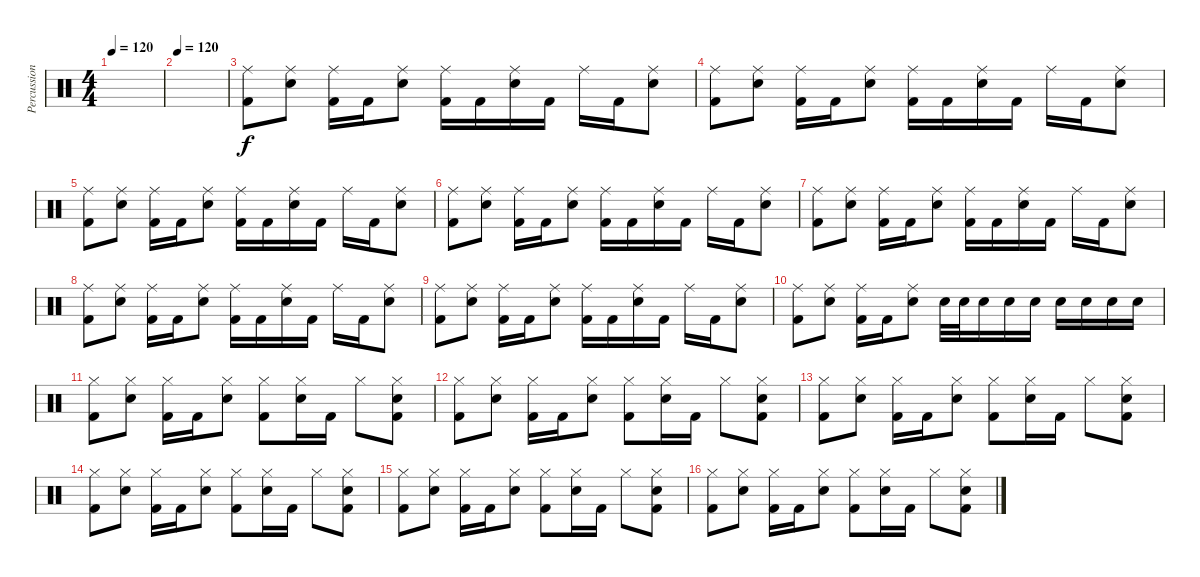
\track ("Percussion" "Percussion") {instrument percussion}
\staff {score}
\articulation defaults
\ts (4 4)
\tempo 120
\clef neutral
\ks c
|
\tempo 120
|
("Ride (middle)" "Kick (hit) 2").8{dy f} ("Ride (middle)" "Electric Snare (hit)").8 ("Ride (middle)" "Kick (hit) 2").16 "Kick (hit) 2".16 ("Ride (middle)" "Electric Snare (hit)").8 ("Ride (middle)" "Kick (hit) 2").16 "Kick (hit) 2".16 ("Ride (middle)" "Electric Snare (hit)").16 "Kick (hit) 2".16 "Ride (middle)".16 "Kick (hit) 2".16 ("Ride (middle)" "Electric Snare (hit)").8 |
("Ride (middle)" "Kick (hit) 2").8 ("Ride (middle)" "Electric Snare (hit)").8 ("Ride (middle)" "Kick (hit) 2").16 "Kick (hit) 2".16 ("Ride (middle)" "Electric Snare (hit)").8 ("Ride (middle)" "Kick (hit) 2").16 "Kick (hit) 2".16 ("Ride (middle)" "Electric Snare (hit)").16 "Kick (hit) 2".16 "Ride (middle)".16 "Kick (hit) 2".16 ("Ride (middle)" "Electric Snare (hit)").8 |
("Ride (middle)" "Kick (hit) 2").8 ("Ride (middle)" "Electric Snare (hit)").8 ("Ride (middle)" "Kick (hit) 2").16 "Kick (hit) 2".16 ("Ride (middle)" "Electric Snare (hit)").8 ("Ride (middle)" "Kick (hit) 2").16 "Kick (hit) 2".16 ("Ride (middle)" "Electric Snare (hit)").16 "Kick (hit) 2".16 "Ride (middle)".16 "Kick (hit) 2".16 ("Ride (middle)" "Electric Snare (hit)").8 |
("Ride (middle)" "Kick (hit) 2").8 ("Ride (middle)" "Electric Snare (hit)").8 ("Ride (middle)" "Kick (hit) 2").16 "Kick (hit) 2".16 ("Ride (middle)" "Electric Snare (hit)").8 ("Ride (middle)" "Kick (hit) 2").16 "Kick (hit) 2".16 ("Ride (middle)" "Electric Snare (hit)").16 "Kick (hit) 2".16 "Ride (middle)".16 "Kick (hit) 2".16 ("Ride (middle)" "Electric Snare (hit)").8 |
("Ride (middle)" "Kick (hit) 2").8 ("Ride (middle)" "Electric Snare (hit)").8 ("Ride (middle)" "Kick (hit) 2").16 "Kick (hit) 2".16 ("Ride (middle)" "Electric Snare (hit)").8 ("Ride (middle)" "Kick (hit) 2").16 "Kick (hit) 2".16 ("Ride (middle)" "Electric Snare (hit)").16 "Kick (hit) 2".16 "Ride (middle)".16 "Kick (hit) 2".16 ("Ride (middle)" "Electric Snare (hit)").8 |
("Ride (middle)" "Kick (hit) 2").8 ("Ride (middle)" "Electric Snare (hit)").8 ("Ride (middle)" "Kick (hit) 2").16 "Kick (hit) 2".16 ("Ride (middle)" "Electric Snare (hit)").8 ("Ride (middle)" "Kick (hit) 2").16 "Kick (hit) 2".16 ("Ride (middle)" "Electric Snare (hit)").16 "Kick (hit) 2".16 "Ride (middle)".16 "Kick (hit) 2".16 ("Ride (middle)" "Electric Snare (hit)").8 |
("Ride (middle)" "Kick (hit) 2").8 ("Ride (middle)" "Electric Snare (hit)").8 ("Ride (middle)" "Kick (hit) 2").16 "Kick (hit) 2".16 ("Ride (middle)" "Electric Snare (hit)").8 ("Ride (middle)" "Kick (hit) 2").16 "Kick (hit) 2".16 ("Ride (middle)" "Electric Snare (hit)").16 "Kick (hit) 2".16 "Ride (middle)".16 "Kick (hit) 2".16 ("Ride (middle)" "Electric Snare (hit)").8 |
("Ride (middle)" "Kick (hit) 2").8 ("Ride (middle)" "Electric Snare (hit)").8 ("Ride (middle)" "Kick (hit) 2").16 "Kick (hit) 2".16 ("Ride (middle)" "Electric Snare (hit)").8 "Electric Snare (hit)".32 "Electric Snare (hit)".32 "Electric Snare (hit)".16 "Electric Snare (hit)".16 "Electric Snare (hit)".16 "Electric Snare (hit)".16 "Electric Snare (hit)".16 "Electric Snare (hit)".16 "Electric Snare (hit)".16 |
("Hi-Hat (closed)" "Kick (hit) 2").8 ("Hi-Hat (closed)" "Electric Snare (hit)").8 ("Hi-Hat (closed)" "Kick (hit) 2").16 "Kick (hit) 2".16 ("Hi-Hat (closed)" "Electric Snare (hit)").8 ("Hi-Hat (closed)" "Kick (hit) 2").8 ("Hi-Hat (closed)" "Electric Snare (hit)").16 "Kick (hit) 2".16 "Hi-Hat (closed)".8 ("Hi-Hat (closed)" "Electric Snare (hit)" "Kick (hit) 2").8 |
("Hi-Hat (closed)" "Kick (hit) 2").8 ("Hi-Hat (closed)" "Electric Snare (hit)").8 ("Hi-Hat (closed)" "Kick (hit) 2").16 "Kick (hit) 2".16 ("Hi-Hat (closed)" "Electric Snare (hit)").8 ("Hi-Hat (closed)" "Kick (hit) 2").8 ("Hi-Hat (closed)" "Electric Snare (hit)").16 "Kick (hit) 2".16 "Hi-Hat (closed)".8 ("Hi-Hat (closed)" "Electric Snare (hit)" "Kick (hit) 2").8 |
("Hi-Hat (closed)" "Kick (hit) 2").8 ("Hi-Hat (closed)" "Electric Snare (hit)").8 ("Hi-Hat (closed)" "Kick (hit) 2").16 "Kick (hit) 2".16 ("Hi-Hat (closed)" "Electric Snare (hit)").8 ("Hi-Hat (closed)" "Kick (hit) 2").8 ("Hi-Hat (closed)" "Electric Snare (hit)").16 "Kick (hit) 2".16 "Hi-Hat (closed)".8 ("Hi-Hat (closed)" "Electric Snare (hit)" "Kick (hit) 2").8 |
("Hi-Hat (closed)" "Kick (hit) 2").8 ("Hi-Hat (closed)" "Electric Snare (hit)").8 ("Hi-Hat (closed)" "Kick (hit) 2").16 "Kick (hit) 2".16 ("Hi-Hat (closed)" "Electric Snare (hit)").8 ("Hi-Hat (closed)" "Kick (hit) 2").8 ("Hi-Hat (closed)" "Electric Snare (hit)").16 "Kick (hit) 2".16 "Hi-Hat (closed)".8 ("Hi-Hat (closed)" "Electric Snare (hit)" "Kick (hit) 2").8 |
("Hi-Hat (closed)" "Kick (hit) 2").8 ("Hi-Hat (closed)" "Electric Snare (hit)").8 ("Hi-Hat (closed)" "Kick (hit) 2").16 "Kick (hit) 2".16 ("Hi-Hat (closed)" "Electric Snare (hit)").8 ("Hi-Hat (closed)" "Kick (hit) 2").8 ("Hi-Hat (closed)" "Electric Snare (hit)").16 "Kick (hit) 2".16 "Hi-Hat (closed)".8 ("Hi-Hat (closed)" "Electric Snare (hit)" "Kick (hit) 2").8 |
("Hi-Hat (closed)" "Kick (hit) 2").8 ("Hi-Hat (closed)" "Electric Snare (hit)").8 ("Hi-Hat (closed)" "Kick (hit) 2").16 "Kick (hit) 2".16 ("Hi-Hat (closed)" "Electric Snare (hit)").8 ("Hi-Hat (closed)" "Kick (hit) 2").8 ("Hi-Hat (closed)" "Electric Snare (hit)").16 "Kick (hit) 2".16 "Hi-Hat (closed)".8 ("Hi-Hat (closed)" "Electric Snare (hit)" "Kick (hit) 2").8
